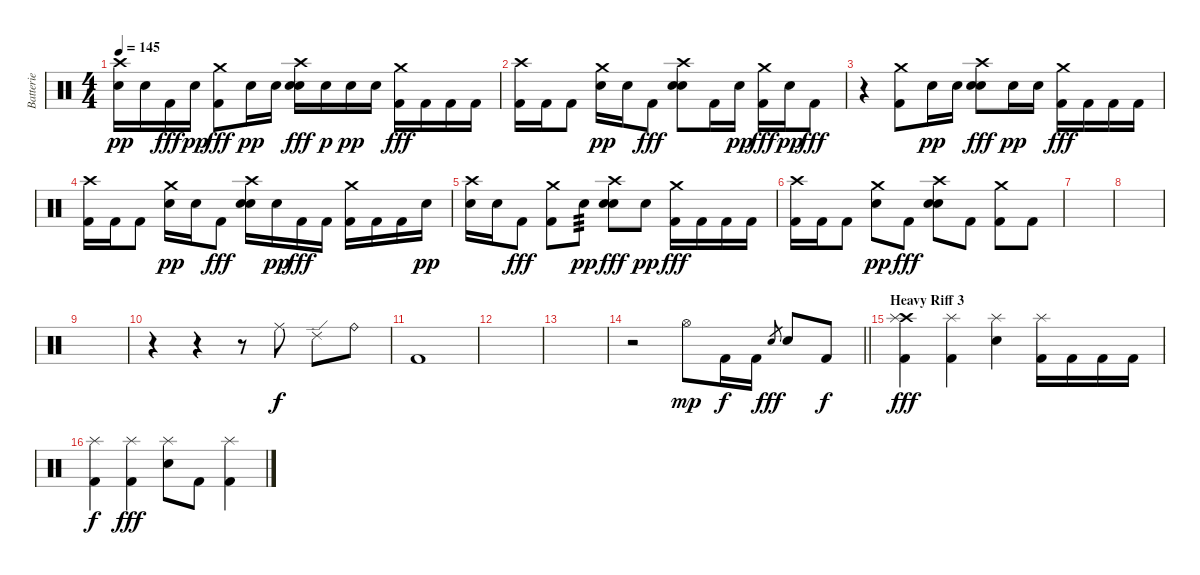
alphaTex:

\track ("Batterie" "Batterie") {instrument percussion}
\staff {score}
\articulation defaults
\ts (4 4)
\tempo 145
\clef neutral
\ks c
("Crash high (hit)" "Electric Snare (hit)").16{dy pp} "Electric Snare (hit)".16 "Kick (hit) 2".16{dy fff} "Electric Snare (hit)".16{dy pp} ("Crash medium (hit)" "Kick (hit) 2").8{dy fff} "Electric Snare (hit)".16{dy pp} "Electric Snare (hit)".16 ("Crash high (hit)" "Electric Snare (hit)" "Electric Snare (hit)").16{dy fff} "Electric Snare (hit)".16{dy p} "Electric Snare (hit)".16{dy pp} "Electric Snare (hit)".16 ("Crash medium (hit)" "Kick (hit) 2").16{dy fff} "Kick (hit) 2".16 "Kick (hit) 2".16 "Kick (hit) 2".16 |
("Crash high (hit)" "Kick (hit) 2").16 "Kick (hit) 2".16 "Kick (hit) 2".8 ("Crash medium (hit)" "Electric Snare (hit)").16{dy pp} "Electric Snare (hit)".16 "Kick (hit) 2".8{dy fff} ("Crash high (hit)" "Electric Snare (hit)" "Electric Snare (hit)").8 "Kick (hit) 2".16 "Electric Snare (hit)".16{dy pp} ("Crash medium (hit)" "Kick (hit) 2").16{dy fff} "Electric Snare (hit)".16{dy pp} "Kick (hit) 2".8{dy fff} |
r.4 ("Crash medium (hit)" "Kick (hit) 2").8 "Electric Snare (hit)".16{dy pp} "Electric Snare (hit)".16 ("Crash high (hit)" "Electric Snare (hit)" "Electric Snare (hit)").8{dy fff} "Electric Snare (hit)".16{dy pp} "Electric Snare (hit)".16 ("Crash medium (hit)" "Kick (hit) 2").16{dy fff} "Kick (hit) 2".16 "Kick (hit) 2".16 "Kick (hit) 2".16 |
("Crash high (hit)" "Kick (hit) 2").16 "Kick (hit) 2".16 "Kick (hit) 2".8 ("Crash medium (hit)" "Electric Snare (hit)").16{dy pp} "Electric Snare (hit)".16 "Kick (hit) 2".8{dy fff} ("Crash high (hit)" "Electric Snare (hit)" "Electric Snare (hit)").16 "Electric Snare (hit)".16{dy pp} "Kick (hit) 2".16{dy fff} "Kick (hit) 2".16 ("Crash medium (hit)" "Kick (hit) 2").16 "Kick (hit) 2".16 "Kick (hit) 2".16 "Electric Snare (hit)".16{dy pp} |
("Crash high (hit)" "Electric Snare (hit)").16 "Electric Snare (hit)".16 "Kick (hit) 2".8{dy fff} ("Crash medium (hit)" "Kick (hit) 2").8 "Electric Snare (hit)".8{tp 3 dy pp} ("Crash high (hit)" "Electric Snare (hit)" "Electric Snare (hit)").8{dy fff} "Electric Snare (hit)".8{dy pp} ("Crash medium (hit)" "Kick (hit) 2").16{dy fff} "Kick (hit) 2".16 "Kick (hit) 2".16 "Kick (hit) 2".16 |
("Crash high (hit)" "Kick (hit) 2").16 "Kick (hit) 2".16 "Kick (hit) 2".8 ("Crash medium (hit)" "Electric Snare (hit)").8{dy pp} "Kick (hit) 2".8{dy fff} ("Crash high (hit)" "Electric Snare (hit)" "Electric Snare (hit)").8 "Kick (hit) 2".8 ("Crash medium (hit)" "Kick (hit) 2").8 "Kick (hit) 2".8 |
|
|
|
r.4 r.4 r.8 "Ride (middle)".8{dy f} "Ride (edge) 2".8 "Ride (bell)".8 |
"Kick (hit) 2".1 |
|
|
\barLineRight lightlight
r.2 "Hi-Hat (open)".8{dy mp} "Kick (hit) 2".16{dy f} "Kick (hit) 2".16 "Electric Snare (hit)".8{gr dy fff} "Electric Snare (hit)".8 "Kick (hit) 2".8{dy f} |
\section ("" "Heavy Riff 3")
("Crash high (hit)" "Splash (hit)" "Kick (hit) 2").4{dy fff} ("Splash (hit)" "Kick (hit) 2").4 ("Splash (hit)" "Electric Snare (hit)").4 ("Splash (hit)" "Kick (hit) 2").16 "Kick (hit) 2".16 "Kick (hit) 2".16 "Kick (hit) 2".16 |
("Splash (hit)" "Kick (hit) 2").4{dy f} ("Splash (hit)" "Kick (hit) 2").4{dy fff} ("Splash (hit)" "Electric Snare (hit)").8 "Kick (hit) 2".8 ("Splash (hit)" "Kick (hit) 2").4
